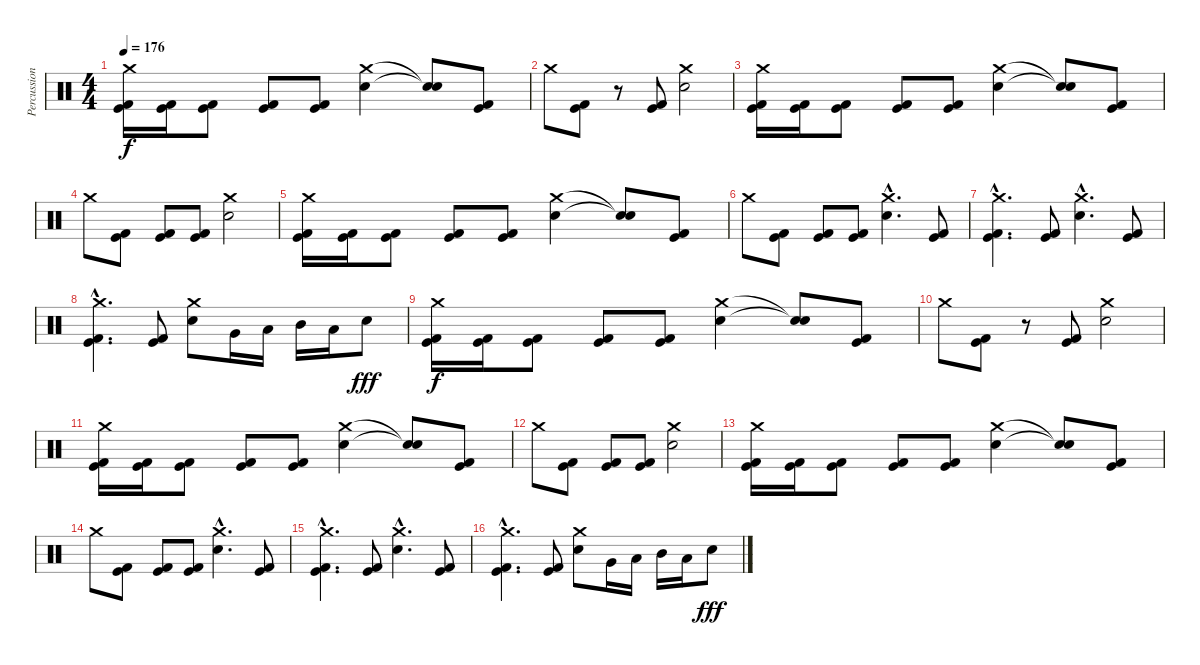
\track ("Percussions" "Percussion") {instrument percussion}
\staff {score}
\articulation defaults
\ts (4 4)
\tempo 176
\clef neutral
\ks c
("Crash medium (hit)" "Kick (hit)" "Kick (hit) 2").16{dy f} ("Kick (hit)" "Kick (hit) 2").16 ("Kick (hit)" "Kick (hit) 2").8 ("Kick (hit)" "Kick (hit) 2").8 ("Kick (hit)" "Kick (hit) 2").8 ("Crash medium (hit)" "Electric Snare (hit)").4 ("Snare (hit)"{t} "Snare (hit)"{t}).8 ("Kick (hit)" "Kick (hit) 2").8 |
"Crash medium (hit)".8 ("Kick (hit)" "Kick (hit) 2").8 r.8 ("Kick (hit)" "Kick (hit) 2").8 ("Crash medium (hit)" "Electric Snare (hit)").2 |
("Crash medium (hit)" "Kick (hit)" "Kick (hit) 2").16 ("Kick (hit)" "Kick (hit) 2").16 ("Kick (hit)" "Kick (hit) 2").8 ("Kick (hit)" "Kick (hit) 2").8 ("Kick (hit)" "Kick (hit) 2").8 ("Crash medium (hit)" "Electric Snare (hit)").4 ("Snare (hit)"{t} "Snare (hit)"{t}).8 ("Kick (hit)" "Kick (hit) 2").8 |
"Crash medium (hit)".8 ("Kick (hit)" "Kick (hit) 2").8 ("Kick (hit)" "Kick (hit) 2").8 ("Kick (hit)" "Kick (hit) 2").8 ("Crash medium (hit)" "Electric Snare (hit)").2 |
("Crash medium (hit)" "Kick (hit)" "Kick (hit) 2").16 ("Kick (hit)" "Kick (hit) 2").16 ("Kick (hit)" "Kick (hit) 2").8 ("Kick (hit)" "Kick (hit) 2").8 ("Kick (hit)" "Kick (hit) 2").8 ("Crash medium (hit)" "Electric Snare (hit)").4 ("Snare (hit)"{t} "Snare (hit)"{t}).8 ("Kick (hit)" "Kick (hit) 2").8 |
"Crash medium (hit)".8 ("Kick (hit)" "Kick (hit) 2").8 ("Kick (hit)" "Kick (hit) 2").8 ("Kick (hit)" "Kick (hit) 2").8 ("Crash medium (hit)"{hac} "Electric Snare (hit)"{hac}).4{d} ("Kick (hit)" "Kick (hit) 2").8 |
("Crash medium (hit)"{hac} "Kick (hit)"{hac} "Kick (hit) 2"{hac}).4{d} ("Kick (hit)" "Kick (hit) 2").8 ("Crash medium (hit)"{hac} "Electric Snare (hit)"{hac}).4{d} ("Kick (hit)" "Kick (hit) 2").8 |
("Crash medium (hit)"{hac} "Kick (hit)"{hac} "Kick (hit) 2"{hac}).4{d} ("Kick (hit)" "Kick (hit) 2").8 ("Crash medium (hit)" "Electric Snare (hit)").8 "Very Low Tom (hit)".16 "Low Tom (hit)".16 "Mid Tom (hit)".16 "Low Tom (hit)".16 "Electric Snare (hit)".8{dy fff} |
("Crash medium (hit)" "Kick (hit)" "Kick (hit) 2").16{dy f} ("Kick (hit)" "Kick (hit) 2").16 ("Kick (hit)" "Kick (hit) 2").8 ("Kick (hit)" "Kick (hit) 2").8 ("Kick (hit)" "Kick (hit) 2").8 ("Crash medium (hit)" "Electric Snare (hit)").4 ("Snare (hit)"{t} "Snare (hit)"{t}).8 ("Kick (hit)" "Kick (hit) 2").8 |
"Crash medium (hit)".8 ("Kick (hit)" "Kick (hit) 2").8 r.8 ("Kick (hit)" "Kick (hit) 2").8 ("Crash medium (hit)" "Electric Snare (hit)").2 |
("Crash medium (hit)" "Kick (hit)" "Kick (hit) 2").16 ("Kick (hit)" "Kick (hit) 2").16 ("Kick (hit)" "Kick (hit) 2").8 ("Kick (hit)" "Kick (hit) 2").8 ("Kick (hit)" "Kick (hit) 2").8 ("Crash medium (hit)" "Electric Snare (hit)").4 ("Snare (hit)"{t} "Snare (hit)"{t}).8 ("Kick (hit)" "Kick (hit) 2").8 |
"Crash medium (hit)".8 ("Kick (hit)" "Kick (hit) 2").8 ("Kick (hit)" "Kick (hit) 2").8 ("Kick (hit)" "Kick (hit) 2").8 ("Crash medium (hit)" "Electric Snare (hit)").2 |
("Crash medium (hit)" "Kick (hit)" "Kick (hit) 2").16 ("Kick (hit)" "Kick (hit) 2").16 ("Kick (hit)" "Kick (hit) 2").8 ("Kick (hit)" "Kick (hit) 2").8 ("Kick (hit)" "Kick (hit) 2").8 ("Crash medium (hit)" "Electric Snare (hit)").4 ("Snare (hit)"{t} "Snare (hit)"{t}).8 ("Kick (hit)" "Kick (hit) 2").8 |
"Crash medium (hit)".8 ("Kick (hit)" "Kick (hit) 2").8 ("Kick (hit)" "Kick (hit) 2").8 ("Kick (hit)" "Kick (hit) 2").8 ("Crash medium (hit)"{hac} "Electric Snare (hit)"{hac}).4{d} ("Kick (hit)" "Kick (hit) 2").8 |
("Crash medium (hit)"{hac} "Kick (hit)"{hac} "Kick (hit) 2"{hac}).4{d} ("Kick (hit)" "Kick (hit) 2").8 ("Crash medium (hit)"{hac} "Electric Snare (hit)"{hac}).4{d} ("Kick (hit)" "Kick (hit) 2").8 |
("Crash medium (hit)"{hac} "Kick (hit)"{hac} "Kick (hit) 2"{hac}).4{d} ("Kick (hit)" "Kick (hit) 2").8 ("Crash medium (hit)" "Electric Snare (hit)").8 "Very Low Tom (hit)".16 "Low Tom (hit)".16 "Mid Tom (hit)".16 "Low Tom (hit)".16 "Electric Snare (hit)".8{dy fff}
